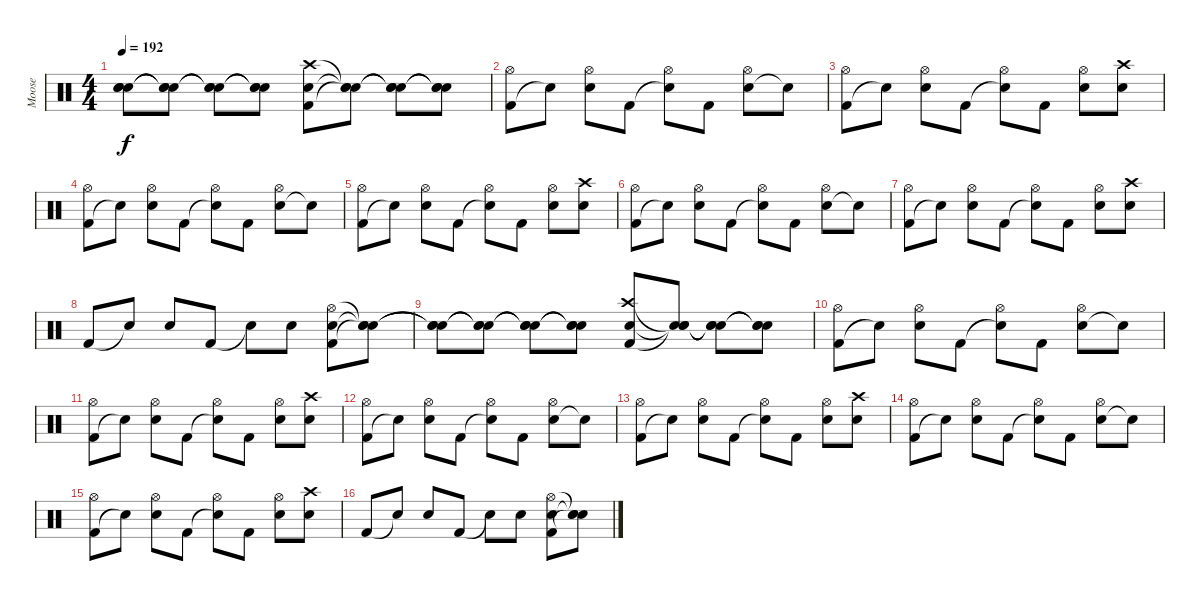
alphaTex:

\track ("Moose" "Moose") {instrument percussion}
\staff {score}
\articulation defaults
\ts (4 4)
\tempo 192
\clef neutral
\ks c
("Snare (hit)"{t} "Snare (hit)"{t} "Snare (hit)"{t}).8{dy f} ("Snare (hit)"{t} "Snare (hit)"{t} "Snare (hit)"{t}).8 ("Snare (hit)"{t} "Snare (hit)"{t} "Snare (hit)"{t}).8 ("Snare (hit)"{t} "Snare (hit)"{t} "Snare (hit)"{t}).8 ("Kick (hit) 2" "Snare (hit) 2" "Crash high (hit)").8 ("Snare (hit)"{t} "Snare (hit)"{t} "Snare (hit)"{t}).8 ("Snare (hit)"{t} "Snare (hit)"{t} "Snare (hit)"{t}).8 ("Snare (hit)"{t} "Snare (hit)"{t} "Snare (hit)"{t}).8 |
("Kick (hit) 2" "Hi-Hat (open)").8 "Snare (hit)"{t}.8 ("Electric Snare (hit)" "Hi-Hat (open)").8 "Kick (hit) 2".8 ("Snare (hit)"{t} "Hi-Hat (open)").8 "Kick (hit) 2".8 ("Electric Snare (hit)" "Hi-Hat (open)").8 "Electric Snare (hit)"{t}.8 |
("Kick (hit) 2" "Hi-Hat (open)").8 "Snare (hit)"{t}.8 ("Electric Snare (hit)" "Hi-Hat (open)").8 "Kick (hit) 2".8 ("Snare (hit)"{t} "Hi-Hat (open)").8 "Kick (hit) 2".8 ("Electric Snare (hit)" "Hi-Hat (open)").8 ("Electric Snare (hit)" "Crash high (hit)").8 |
("Kick (hit) 2" "Hi-Hat (open)").8 "Snare (hit)"{t}.8 ("Electric Snare (hit)" "Hi-Hat (open)").8 "Kick (hit) 2".8 ("Snare (hit)"{t} "Hi-Hat (open)").8 "Kick (hit) 2".8 ("Electric Snare (hit)" "Hi-Hat (open)").8 "Electric Snare (hit)"{t}.8 |
("Kick (hit) 2" "Hi-Hat (open)").8 "Snare (hit)"{t}.8 ("Electric Snare (hit)" "Hi-Hat (open)").8 "Kick (hit) 2".8 ("Snare (hit)"{t} "Hi-Hat (open)").8 "Kick (hit) 2".8 ("Electric Snare (hit)" "Hi-Hat (open)").8 ("Electric Snare (hit)" "Crash high (hit)").8 |
("Kick (hit) 2" "Hi-Hat (open)").8 "Snare (hit)"{t}.8 ("Electric Snare (hit)" "Hi-Hat (open)").8 "Kick (hit) 2".8 ("Snare (hit)"{t} "Hi-Hat (open)").8 "Kick (hit) 2".8 ("Electric Snare (hit)" "Hi-Hat (open)").8 "Electric Snare (hit)"{t}.8 |
("Kick (hit) 2" "Hi-Hat (open)").8 "Snare (hit)"{t}.8 ("Electric Snare (hit)" "Hi-Hat (open)").8 "Kick (hit) 2".8 ("Snare (hit)"{t} "Hi-Hat (open)").8 "Kick (hit) 2".8 ("Electric Snare (hit)" "Hi-Hat (open)").8 ("Electric Snare (hit)" "Crash high (hit)").8 |
"Kick (hit) 2".8 "Snare (hit)"{t}.8 "Electric Snare (hit)".8 "Kick (hit) 2".8 "Snare (hit)"{t}.8 "Electric Snare (hit)".8 ("Kick (hit) 2" "Snare (hit) 2" "Hi-Hat (open)").8 ("Snare (hit)"{t} "Snare (hit)"{t} "Snare (hit)"{t}).8 |
("Snare (hit)"{t} "Snare (hit)"{t} "Snare (hit)"{t}).8 ("Snare (hit)"{t} "Snare (hit)"{t} "Snare (hit)"{t}).8 ("Snare (hit)"{t} "Snare (hit)"{t} "Snare (hit)"{t}).8 ("Snare (hit)"{t} "Snare (hit)"{t} "Snare (hit)"{t}).8 ("Kick (hit) 2" "Electric Snare (hit)" "Crash high (hit)").8 ("Snare (hit)"{t} "Snare (hit)"{t} "Snare (hit)"{t}).8 ("Snare (hit)"{t} "Snare (hit)"{t} "Snare (hit)"{t}).8 ("Snare (hit)"{t} "Snare (hit)"{t} "Snare (hit)"{t}).8 |
("Kick (hit) 2" "Hi-Hat (open)").8 "Snare (hit)"{t}.8 ("Electric Snare (hit)" "Hi-Hat (open)").8 "Kick (hit) 2".8 ("Snare (hit)"{t} "Hi-Hat (open)").8 "Kick (hit) 2".8 ("Electric Snare (hit)" "Hi-Hat (open)").8 "Electric Snare (hit)"{t}.8 |
("Kick (hit) 2" "Hi-Hat (open)").8 "Snare (hit)"{t}.8 ("Electric Snare (hit)" "Hi-Hat (open)").8 "Kick (hit) 2".8 ("Snare (hit)"{t} "Hi-Hat (open)").8 "Kick (hit) 2".8 ("Electric Snare (hit)" "Hi-Hat (open)").8 ("Electric Snare (hit)" "Crash high (hit)").8 |
("Kick (hit) 2" "Hi-Hat (open)").8 "Snare (hit)"{t}.8 ("Electric Snare (hit)" "Hi-Hat (open)").8 "Kick (hit) 2".8 ("Snare (hit)"{t} "Hi-Hat (open)").8 "Kick (hit) 2".8 ("Electric Snare (hit)" "Hi-Hat (open)").8 "Electric Snare (hit)"{t}.8 |
("Kick (hit) 2" "Hi-Hat (open)").8 "Snare (hit)"{t}.8 ("Electric Snare (hit)" "Hi-Hat (open)").8 "Kick (hit) 2".8 ("Snare (hit)"{t} "Hi-Hat (open)").8 "Kick (hit) 2".8 ("Electric Snare (hit)" "Hi-Hat (open)").8 ("Electric Snare (hit)" "Crash high (hit)").8 |
("Kick (hit) 2" "Hi-Hat (open)").8 "Snare (hit)"{t}.8 ("Electric Snare (hit)" "Hi-Hat (open)").8 "Kick (hit) 2".8 ("Snare (hit)"{t} "Hi-Hat (open)").8 "Kick (hit) 2".8 ("Electric Snare (hit)" "Hi-Hat (open)").8 "Electric Snare (hit)"{t}.8 |
("Kick (hit) 2" "Hi-Hat (open)").8 "Snare (hit)"{t}.8 ("Electric Snare (hit)" "Hi-Hat (open)").8 "Kick (hit) 2".8 ("Snare (hit)"{t} "Hi-Hat (open)").8 "Kick (hit) 2".8 ("Electric Snare (hit)" "Hi-Hat (open)").8 ("Electric Snare (hit)" "Crash high (hit)").8 |
"Kick (hit) 2".8 "Snare (hit)"{t}.8 "Electric Snare (hit)".8 "Kick (hit) 2".8 "Snare (hit)"{t}.8 "Electric Snare (hit)".8 ("Kick (hit) 2" "Snare (hit) 2" "Hi-Hat (open)").8 ("Snare (hit)"{t} "Snare (hit)"{t} "Snare (hit)"{t}).8
